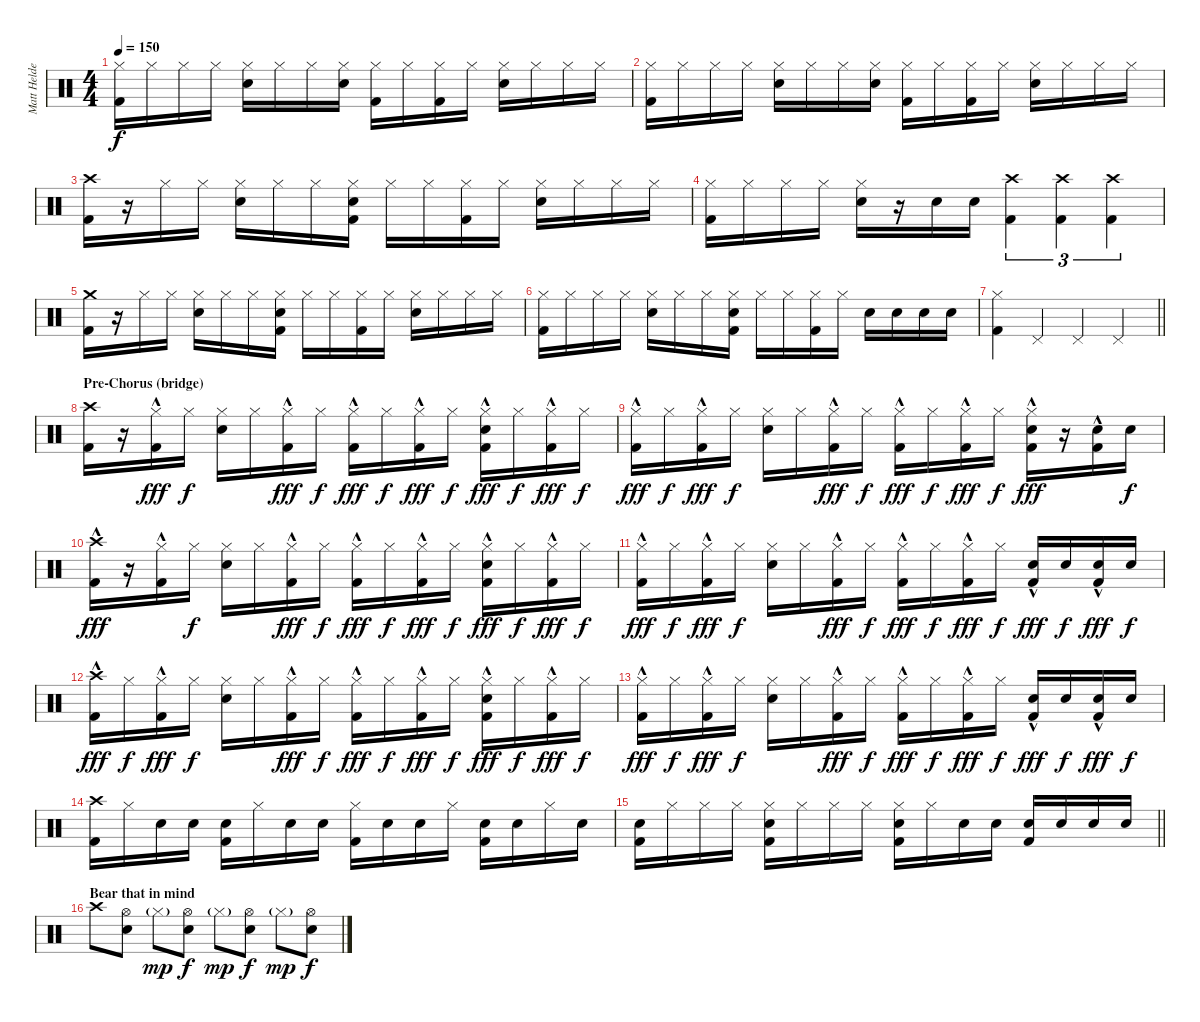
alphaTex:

\track ("Matt Helders" "Matt Helde") {instrument percussion}
\staff {score}
\articulation defaults
\ts (4 4)
\tempo 150
\clef neutral
\ks c
("Hi-Hat (closed)" "Kick (hit) 2").16{dy f} "Hi-Hat (closed)".16 "Hi-Hat (closed)".16 "Hi-Hat (closed)".16 ("Hi-Hat (closed)" "Snare (hit) 2").16 "Hi-Hat (closed)".16 "Hi-Hat (closed)".16 ("Hi-Hat (closed)" "Snare (hit) 2").16 ("Hi-Hat (closed)" "Kick (hit) 2").16 "Hi-Hat (closed)".16 ("Hi-Hat (closed)" "Kick (hit) 2").16 "Hi-Hat (closed)".16 ("Hi-Hat (closed)" "Snare (hit) 2").16 "Hi-Hat (closed)".16 "Hi-Hat (closed)".16 "Hi-Hat (closed)".16 |
("Hi-Hat (closed)" "Kick (hit) 2").16 "Hi-Hat (closed)".16 "Hi-Hat (closed)".16 "Hi-Hat (closed)".16 ("Hi-Hat (closed)" "Snare (hit) 2").16 "Hi-Hat (closed)".16 "Hi-Hat (closed)".16 ("Hi-Hat (closed)" "Snare (hit) 2").16 ("Hi-Hat (closed)" "Kick (hit) 2").16 "Hi-Hat (closed)".16 ("Hi-Hat (closed)" "Kick (hit) 2").16 "Hi-Hat (closed)".16 ("Hi-Hat (closed)" "Snare (hit) 2").16 "Hi-Hat (closed)".16 "Hi-Hat (closed)".16 "Hi-Hat (closed)".16 |
("Crash high (hit)" "Kick (hit) 2").16 r.16 "Hi-Hat (closed)".16 "Hi-Hat (closed)".16 ("Hi-Hat (closed)" "Snare (hit) 2").16 "Hi-Hat (closed)".16 "Hi-Hat (closed)".16 ("Hi-Hat (closed)" "Snare (hit) 2" "Kick (hit) 2").16 "Hi-Hat (closed)".16 "Hi-Hat (closed)".16 ("Hi-Hat (closed)" "Kick (hit) 2").16 "Hi-Hat (closed)".16 ("Hi-Hat (closed)" "Snare (hit) 2").16 "Hi-Hat (closed)".16 "Hi-Hat (closed)".16 "Hi-Hat (closed)".16 |
("Hi-Hat (closed)" "Kick (hit) 2").16 "Hi-Hat (closed)".16 "Hi-Hat (closed)".16 "Hi-Hat (closed)".16 ("Hi-Hat (closed)" "Snare (hit) 2").16 r.16 "Snare (hit) 2".16 "Snare (hit) 2".16 ("Kick (hit) 2" "Crash high (hit)").4{tu (3 2)} ("Kick (hit) 2" "Crash high (hit)").4{tu (3 2)} ("Kick (hit) 2" "Crash high (hit)").4{tu (3 2)} |
("Crash medium (hit)" "Kick (hit) 2").16 r.16 "Hi-Hat (closed)".16 "Hi-Hat (closed)".16 ("Hi-Hat (closed)" "Snare (hit) 2").16 "Hi-Hat (closed)".16 "Hi-Hat (closed)".16 ("Hi-Hat (closed)" "Snare (hit) 2" "Kick (hit) 2").16 "Hi-Hat (closed)".16 "Hi-Hat (closed)".16 ("Hi-Hat (closed)" "Kick (hit) 2").16 "Hi-Hat (closed)".16 ("Hi-Hat (closed)" "Snare (hit) 2").16 "Hi-Hat (closed)".16 "Hi-Hat (closed)".16 "Hi-Hat (closed)".16 |
("Hi-Hat (closed)" "Kick (hit) 2").16 "Hi-Hat (closed)".16 "Hi-Hat (closed)".16 "Hi-Hat (closed)".16 ("Hi-Hat (closed)" "Snare (hit) 2").16 "Hi-Hat (closed)".16 "Hi-Hat (closed)".16 ("Hi-Hat (closed)" "Snare (hit) 2" "Kick (hit) 2").16 "Hi-Hat (closed)".16 "Hi-Hat (closed)".16 ("Hi-Hat (closed)" "Kick (hit) 2").16 "Hi-Hat (closed)".16 "Snare (hit) 2".16 "Snare (hit) 2".16 "Snare (hit) 2".16 "Snare (hit) 2".16 |
\barLineRight lightlight
("Kick (hit) 2" "Hi-Hat (closed)").4 "Pedal Hi-Hat (hit)".4 "Pedal Hi-Hat (hit)".4 "Pedal Hi-Hat (hit)".4 |
\section ("" "Pre-Chorus (bridge)")
("Crash high (hit)" "Kick (hit) 2").16 r.16 ("Hi-Hat (closed)" "Kick (hit) 2"{hac}).16{dy fff} "Hi-Hat (closed)".16{dy f} ("Hi-Hat (closed)" "Snare (hit) 2").16 "Hi-Hat (closed)".16 ("Hi-Hat (closed)" "Kick (hit) 2"{hac}).16{dy fff} "Hi-Hat (closed)".16{dy f} ("Hi-Hat (closed)" "Kick (hit) 2"{hac}).16{dy fff} "Hi-Hat (closed)".16{dy f} ("Hi-Hat (closed)" "Kick (hit) 2"{hac}).16{dy fff} "Hi-Hat (closed)".16{dy f} ("Hi-Hat (closed)" "Snare (hit) 2" "Kick (hit) 2"{hac}).16{dy fff} "Hi-Hat (closed)".16{dy f} ("Hi-Hat (closed)" "Kick (hit) 2"{hac}).16{dy fff} "Hi-Hat (closed)".16{dy f} |
("Hi-Hat (closed)" "Kick (hit) 2"{hac}).16{dy fff} "Hi-Hat (closed)".16{dy f} ("Hi-Hat (closed)" "Kick (hit) 2"{hac}).16{dy fff} "Hi-Hat (closed)".16{dy f} ("Hi-Hat (closed)" "Snare (hit) 2").16 "Hi-Hat (closed)".16 ("Hi-Hat (closed)" "Kick (hit) 2"{hac}).16{dy fff} "Hi-Hat (closed)".16{dy f} ("Hi-Hat (closed)" "Kick (hit) 2"{hac}).16{dy fff} "Hi-Hat (closed)".16{dy f} ("Hi-Hat (closed)" "Kick (hit) 2"{hac}).16{dy fff} "Hi-Hat (closed)".16{dy f} ("Hi-Hat (closed)" "Snare (hit) 2" "Kick (hit) 2"{hac}).16{dy fff} r.16 ("Snare (hit) 2" "Kick (hit) 2"{hac}).16 "Snare (hit) 2".16{dy f} |
("Crash high (hit)" "Kick (hit) 2"{hac}).16{dy fff} r.16 ("Hi-Hat (closed)" "Kick (hit) 2"{hac}).16 "Hi-Hat (closed)".16{dy f} ("Hi-Hat (closed)" "Snare (hit) 2").16 "Hi-Hat (closed)".16 ("Hi-Hat (closed)" "Kick (hit) 2"{hac}).16{dy fff} "Hi-Hat (closed)".16{dy f} ("Hi-Hat (closed)" "Kick (hit) 2"{hac}).16{dy fff} "Hi-Hat (closed)".16{dy f} ("Hi-Hat (closed)" "Kick (hit) 2"{hac}).16{dy fff} "Hi-Hat (closed)".16{dy f} ("Hi-Hat (closed)" "Snare (hit) 2" "Kick (hit) 2"{hac}).16{dy fff} "Hi-Hat (closed)".16{dy f} ("Hi-Hat (closed)" "Kick (hit) 2"{hac}).16{dy fff} "Hi-Hat (closed)".16{dy f} |
("Hi-Hat (closed)" "Kick (hit) 2"{hac}).16{dy fff} "Hi-Hat (closed)".16{dy f} ("Hi-Hat (closed)" "Kick (hit) 2"{hac}).16{dy fff} "Hi-Hat (closed)".16{dy f} ("Hi-Hat (closed)" "Snare (hit) 2").16 "Hi-Hat (closed)".16 ("Hi-Hat (closed)" "Kick (hit) 2"{hac}).16{dy fff} "Hi-Hat (closed)".16{dy f} ("Hi-Hat (closed)" "Kick (hit) 2"{hac}).16{dy fff} "Hi-Hat (closed)".16{dy f} ("Hi-Hat (closed)" "Kick (hit) 2"{hac}).16{dy fff} "Hi-Hat (closed)".16{dy f} ("Snare (hit) 2" "Kick (hit) 2"{hac}).16{dy fff} "Snare (hit) 2".16{dy f} ("Snare (hit) 2" "Kick (hit) 2"{hac}).16{dy fff} "Snare (hit) 2".16{dy f} |
("Crash high (hit)" "Kick (hit) 2"{hac}).16{dy fff} "Hi-Hat (closed)".16{dy f} ("Hi-Hat (closed)" "Kick (hit) 2"{hac}).16{dy fff} "Hi-Hat (closed)".16{dy f} ("Hi-Hat (closed)" "Snare (hit) 2").16 "Hi-Hat (closed)".16 ("Hi-Hat (closed)" "Kick (hit) 2"{hac}).16{dy fff} "Hi-Hat (closed)".16{dy f} ("Hi-Hat (closed)" "Kick (hit) 2"{hac}).16{dy fff} "Hi-Hat (closed)".16{dy f} ("Hi-Hat (closed)" "Kick (hit) 2"{hac}).16{dy fff} "Hi-Hat (closed)".16{dy f} ("Hi-Hat (closed)" "Snare (hit) 2" "Kick (hit) 2"{hac}).16{dy fff} "Hi-Hat (closed)".16{dy f} ("Hi-Hat (closed)" "Kick (hit) 2"{hac}).16{dy fff} "Hi-Hat (closed)".16{dy f} |
("Hi-Hat (closed)" "Kick (hit) 2"{hac}).16{dy fff} "Hi-Hat (closed)".16{dy f} ("Hi-Hat (closed)" "Kick (hit) 2"{hac}).16{dy fff} "Hi-Hat (closed)".16{dy f} ("Hi-Hat (closed)" "Snare (hit) 2").16 "Hi-Hat (closed)".16 ("Hi-Hat (closed)" "Kick (hit) 2"{hac}).16{dy fff} "Hi-Hat (closed)".16{dy f} ("Hi-Hat (closed)" "Kick (hit) 2"{hac}).16{dy fff} "Hi-Hat (closed)".16{dy f} ("Hi-Hat (closed)" "Kick (hit) 2"{hac}).16{dy fff} "Hi-Hat (closed)".16{dy f} ("Snare (hit) 2" "Kick (hit) 2"{hac}).16{dy fff} "Snare (hit) 2".16{dy f} ("Snare (hit) 2" "Kick (hit) 2"{hac}).16{dy fff} "Snare (hit) 2".16{dy f} |
("Crash high (hit)" "Kick (hit) 2").16 "Hi-Hat (closed)".16 "Snare (hit) 2".16 "Snare (hit) 2".16 ("Snare (hit) 2" "Kick (hit) 2").16 "Hi-Hat (closed)".16 "Snare (hit) 2".16 "Snare (hit) 2".16 ("Hi-Hat (closed)" "Kick (hit) 2").16 "Snare (hit) 2".16 "Snare (hit) 2".16 "Hi-Hat (closed)".16 ("Snare (hit) 2" "Kick (hit) 2").16 "Snare (hit) 2".16 "Hi-Hat (closed)".16 "Snare (hit) 2".16 |
\barLineRight lightlight
("Snare (hit) 2" "Kick (hit) 2").16 "Hi-Hat (closed)".16 "Hi-Hat (closed)".16 "Hi-Hat (closed)".16 ("Hi-Hat (closed)" "Snare (hit) 2" "Kick (hit) 2").16 "Hi-Hat (closed)".16 "Hi-Hat (closed)".16 "Hi-Hat (closed)".16 ("Hi-Hat (closed)" "Snare (hit) 2" "Kick (hit) 2").16 "Hi-Hat (closed)".16 "Snare (hit) 2".16 "Snare (hit) 2".16 ("Snare (hit) 2" "Kick (hit) 2").16 "Snare (hit) 2".16 "Snare (hit) 2".16 "Snare (hit) 2".16 |
\section ("" "Bear that in mind")
"Crash high (hit)".8 ("Hi-Hat (open)" "Snare (hit) 2").8 "Hi-Hat (closed)"{g}.8{dy mp} ("Hi-Hat (open)" "Snare (hit) 2").8{dy f} "Hi-Hat (closed)"{g}.8{dy mp} ("Hi-Hat (open)" "Snare (hit) 2").8{dy f} "Hi-Hat (closed)"{g}.8{dy mp} ("Hi-Hat (open)" "Snare (hit) 2").8{dy f}
